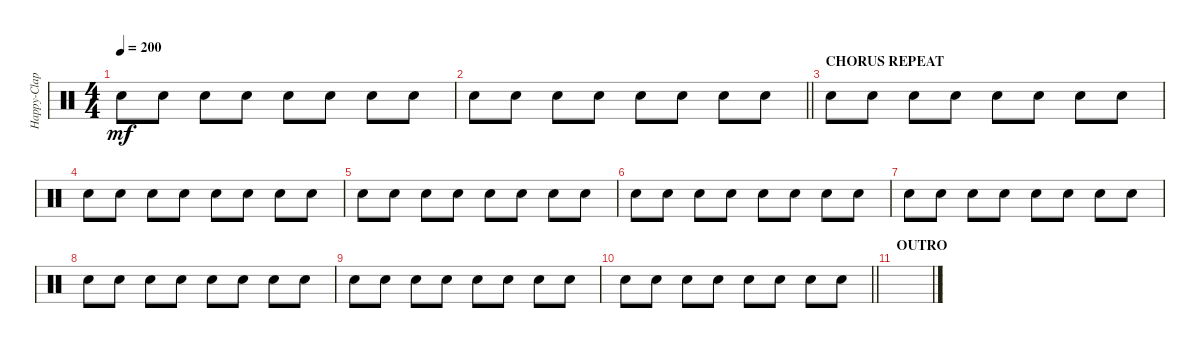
\track ("Happy-Clappy" "Happy-Clap") {instrument percussion}
\staff {score}
\articulation defaults
\ts (4 4)
\tempo 200
\clef neutral
\ks c "Hand Clap (hit)".8{dy mf} "Hand Clap (hit)".8 "Hand Clap (hit)".8 "Hand Clap (hit)".8 "Hand Clap (hit)".8 "Hand Clap (hit)".8 "Hand Clap (hit)".8 "Hand Clap (hit)".8
|
\barLineRight lightlight "Hand Clap (hit)".8 "Hand Clap (hit)".8 "Hand Clap (hit)".8 "Hand Clap (hit)".8 "Hand Clap (hit)".8 "Hand Clap (hit)".8 "Hand Clap (hit)".8 "Hand Clap (hit)".8
|
\section ("" "CHORUS REPEAT")
"Hand Clap (hit)".8 "Hand Clap (hit)".8 "Hand Clap (hit)".8 "Hand Clap (hit)".8 "Hand Clap (hit)".8 "Hand Clap (hit)".8 "Hand Clap (hit)".8 "Hand Clap (hit)".8 |
"Hand Clap (hit)".8 "Hand Clap (hit)".8 "Hand Clap (hit)".8 "Hand Clap (hit)".8 "Hand Clap (hit)".8 "Hand Clap (hit)".8 "Hand Clap (hit)".8 "Hand Clap (hit)".8 |
"Hand Clap (hit)".8 "Hand Clap (hit)".8 "Hand Clap (hit)".8 "Hand Clap (hit)".8 "Hand Clap (hit)".8 "Hand Clap (hit)".8 "Hand Clap (hit)".8 "Hand Clap (hit)".8 |
"Hand Clap (hit)".8 "Hand Clap (hit)".8 "Hand Clap (hit)".8 "Hand Clap (hit)".8 "Hand Clap (hit)".8 "Hand Clap (hit)".8 "Hand Clap (hit)".8 "Hand Clap (hit)".8 |
"Hand Clap (hit)".8 "Hand Clap (hit)".8 "Hand Clap (hit)".8 "Hand Clap (hit)".8 "Hand Clap (hit)".8 "Hand Clap (hit)".8 "Hand Clap (hit)".8 "Hand Clap (hit)".8 |
"Hand Clap (hit)".8 "Hand Clap (hit)".8 "Hand Clap (hit)".8 "Hand Clap (hit)".8 "Hand Clap (hit)".8 "Hand Clap (hit)".8 "Hand Clap (hit)".8 "Hand Clap (hit)".8 |
"Hand Clap (hit)".8 "Hand Clap (hit)".8 "Hand Clap (hit)".8 "Hand Clap (hit)".8 "Hand Clap (hit)".8 "Hand Clap (hit)".8 "Hand Clap (hit)".8 "Hand Clap (hit)".8 |
\barLineRight lightlight "Hand Clap (hit)".8 "Hand Clap (hit)".8 "Hand Clap (hit)".8 "Hand Clap (hit)".8 "Hand Clap (hit)".8 "Hand Clap (hit)".8 "Hand Clap (hit)".8 "Hand Clap (hit)".8
|
\section ("" "OUTRO")
